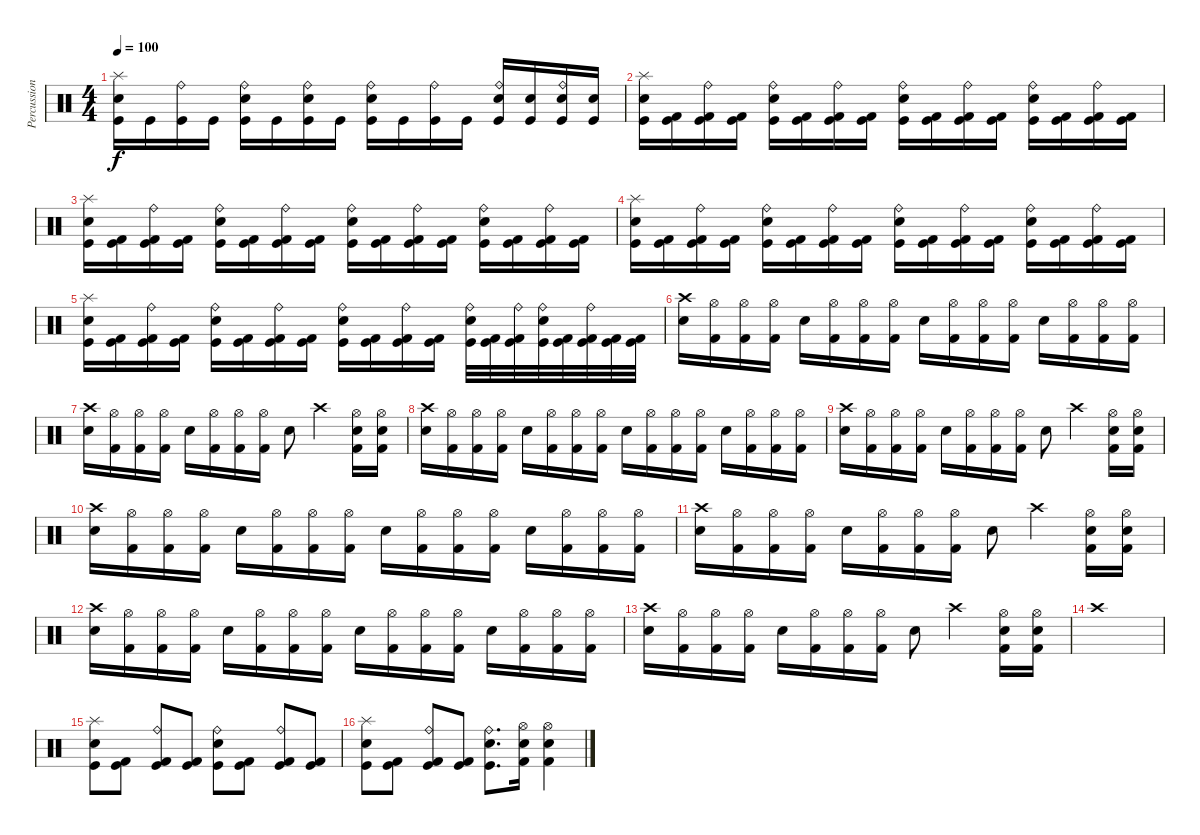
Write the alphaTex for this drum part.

\track ("Percussion" "Percussion") {instrument percussion}
\staff {score}
\articulation defaults
\ts (4 4)
\tempo 100
\clef neutral
\ks c
("Kick (hit)" "Electric Snare (hit)" "Splash (hit)").16{dy f} "Kick (hit)".16 ("Kick (hit)" "Ride (bell)").16 "Kick (hit)".16 ("Kick (hit)" "Electric Snare (hit)" "Ride (bell)").16 "Kick (hit)".16 ("Kick (hit)" "Electric Snare (hit)" "Ride (bell)").16 "Kick (hit)".16 ("Kick (hit)" "Electric Snare (hit)" "Ride (bell)").16 "Kick (hit)".16 ("Kick (hit)" "Ride (bell)").16 "Kick (hit)".16 ("Kick (hit)" "Snare (hit) 2" "Ride (bell)").16 ("Kick (hit)" "Snare (hit) 2").16 ("Kick (hit)" "Snare (hit) 2" "Ride (bell)").16 ("Kick (hit)" "Snare (hit) 2").16 |
("Kick (hit)" "Electric Snare (hit)" "Splash (hit)").16 ("Kick (hit)" "Kick (hit) 2").16 ("Kick (hit)" "Kick (hit) 2" "Ride (bell)").16 ("Kick (hit)" "Kick (hit) 2").16 ("Kick (hit)" "Electric Snare (hit)" "Ride (bell)").16 ("Kick (hit)" "Kick (hit) 2").16 ("Kick (hit)" "Kick (hit) 2" "Ride (bell)").16 ("Kick (hit)" "Kick (hit) 2").16 ("Kick (hit)" "Electric Snare (hit)" "Ride (bell)").16 ("Kick (hit)" "Kick (hit) 2").16 ("Kick (hit)" "Kick (hit) 2" "Ride (bell)").16 ("Kick (hit)" "Kick (hit) 2").16 ("Kick (hit)" "Electric Snare (hit)" "Ride (bell)").16 ("Kick (hit)" "Kick (hit) 2").16 ("Kick (hit)" "Kick (hit) 2" "Ride (bell)").16 ("Kick (hit)" "Kick (hit) 2").16 |
("Kick (hit)" "Electric Snare (hit)" "Splash (hit)").16 ("Kick (hit)" "Kick (hit) 2").16 ("Kick (hit)" "Kick (hit) 2" "Ride (bell)").16 ("Kick (hit)" "Kick (hit) 2").16 ("Kick (hit)" "Electric Snare (hit)" "Ride (bell)").16 ("Kick (hit)" "Kick (hit) 2").16 ("Kick (hit)" "Kick (hit) 2" "Ride (bell)").16 ("Kick (hit)" "Kick (hit) 2").16 ("Kick (hit)" "Electric Snare (hit)" "Ride (bell)").16 ("Kick (hit)" "Kick (hit) 2").16 ("Kick (hit)" "Kick (hit) 2" "Ride (bell)").16 ("Kick (hit)" "Kick (hit) 2").16 ("Kick (hit)" "Electric Snare (hit)" "Ride (bell)").16 ("Kick (hit)" "Kick (hit) 2").16 ("Kick (hit)" "Kick (hit) 2" "Ride (bell)").16 ("Kick (hit)" "Kick (hit) 2").16 |
("Kick (hit)" "Electric Snare (hit)" "Splash (hit)").16 ("Kick (hit)" "Kick (hit) 2").16 ("Kick (hit)" "Kick (hit) 2" "Ride (bell)").16 ("Kick (hit)" "Kick (hit) 2").16 ("Kick (hit)" "Electric Snare (hit)" "Ride (bell)").16 ("Kick (hit)" "Kick (hit) 2").16 ("Kick (hit)" "Kick (hit) 2" "Ride (bell)").16 ("Kick (hit)" "Kick (hit) 2").16 ("Kick (hit)" "Electric Snare (hit)" "Ride (bell)").16 ("Kick (hit)" "Kick (hit) 2").16 ("Kick (hit)" "Kick (hit) 2" "Ride (bell)").16 ("Kick (hit)" "Kick (hit) 2").16 ("Kick (hit)" "Electric Snare (hit)" "Ride (bell)").16 ("Kick (hit)" "Kick (hit) 2").16 ("Kick (hit)" "Kick (hit) 2" "Ride (bell)").16 ("Kick (hit)" "Kick (hit) 2").16 |
("Kick (hit)" "Electric Snare (hit)" "Splash (hit)").16 ("Kick (hit)" "Kick (hit) 2").16 ("Kick (hit)" "Kick (hit) 2" "Ride (bell)").16 ("Kick (hit)" "Kick (hit) 2").16 ("Kick (hit)" "Electric Snare (hit)" "Ride (bell)").16 ("Kick (hit)" "Kick (hit) 2").16 ("Kick (hit)" "Kick (hit) 2" "Ride (bell)").16 ("Kick (hit)" "Kick (hit) 2").16 ("Kick (hit)" "Electric Snare (hit)" "Ride (bell)").16 ("Kick (hit)" "Kick (hit) 2").16 ("Kick (hit)" "Kick (hit) 2" "Ride (bell)").16 ("Kick (hit)" "Kick (hit) 2").16 ("Kick (hit)" "Electric Snare (hit)" "Ride (bell)").32 ("Kick (hit)" "Kick (hit) 2").32 ("Kick (hit)" "Kick (hit) 2" "Ride (bell)").32 ("Kick (hit)" "Electric Snare (hit)" "Ride (bell)").32 ("Kick (hit)" "Kick (hit) 2").32 ("Kick (hit)" "Kick (hit) 2" "Ride (bell)").32 ("Kick (hit)" "Kick (hit) 2").32 ("Kick (hit)" "Kick (hit) 2").32 |
("Crash high (hit)" "Electric Snare (hit)").16 ("Hi-Hat (open)" "Kick (hit) 2").16 ("Hi-Hat (open)" "Kick (hit) 2").16 ("Hi-Hat (open)" "Kick (hit) 2").16 "Electric Snare (hit)".16 ("Hi-Hat (open)" "Kick (hit) 2").16 ("Hi-Hat (open)" "Kick (hit) 2").16 ("Hi-Hat (open)" "Kick (hit) 2").16 "Electric Snare (hit)".16 ("Hi-Hat (open)" "Kick (hit) 2").16 ("Hi-Hat (open)" "Kick (hit) 2").16 ("Hi-Hat (open)" "Kick (hit) 2").16 "Electric Snare (hit)".16 ("Hi-Hat (open)" "Kick (hit) 2").16 ("Hi-Hat (open)" "Kick (hit) 2").16 ("Hi-Hat (open)" "Kick (hit) 2").16 |
("Crash high (hit)" "Electric Snare (hit)").16 ("Hi-Hat (open)" "Kick (hit) 2").16 ("Hi-Hat (open)" "Kick (hit) 2").16 ("Hi-Hat (open)" "Kick (hit) 2").16 "Electric Snare (hit)".16 ("Hi-Hat (open)" "Kick (hit) 2").16 ("Hi-Hat (open)" "Kick (hit) 2").16 ("Hi-Hat (open)" "Kick (hit) 2").16 "Electric Snare (hit)".8 "Crash high (hit)".4 ("Hi-Hat (open)" "Snare (hit) 2" "Kick (hit) 2").16 ("Hi-Hat (open)" "Electric Snare (hit)" "Kick (hit) 2").16 |
("Crash high (hit)" "Electric Snare (hit)").16 ("Hi-Hat (open)" "Kick (hit) 2").16 ("Hi-Hat (open)" "Kick (hit) 2").16 ("Hi-Hat (open)" "Kick (hit) 2").16 "Electric Snare (hit)".16 ("Hi-Hat (open)" "Kick (hit) 2").16 ("Hi-Hat (open)" "Kick (hit) 2").16 ("Hi-Hat (open)" "Kick (hit) 2").16 "Electric Snare (hit)".16 ("Hi-Hat (open)" "Kick (hit) 2").16 ("Hi-Hat (open)" "Kick (hit) 2").16 ("Hi-Hat (open)" "Kick (hit) 2").16 "Electric Snare (hit)".16 ("Hi-Hat (open)" "Kick (hit) 2").16 ("Hi-Hat (open)" "Kick (hit) 2").16 ("Hi-Hat (open)" "Kick (hit) 2").16 |
("Crash high (hit)" "Electric Snare (hit)").16 ("Hi-Hat (open)" "Kick (hit) 2").16 ("Hi-Hat (open)" "Kick (hit) 2").16 ("Hi-Hat (open)" "Kick (hit) 2").16 "Electric Snare (hit)".16 ("Hi-Hat (open)" "Kick (hit) 2").16 ("Hi-Hat (open)" "Kick (hit) 2").16 ("Hi-Hat (open)" "Kick (hit) 2").16 "Electric Snare (hit)".8 "Crash high (hit)".4 ("Hi-Hat (open)" "Snare (hit) 2" "Kick (hit) 2").16 ("Hi-Hat (open)" "Electric Snare (hit)" "Kick (hit) 2").16 |
("Crash high (hit)" "Electric Snare (hit)").16 ("Hi-Hat (open)" "Kick (hit) 2").16 ("Hi-Hat (open)" "Kick (hit) 2").16 ("Hi-Hat (open)" "Kick (hit) 2").16 "Electric Snare (hit)".16 ("Hi-Hat (open)" "Kick (hit) 2").16 ("Hi-Hat (open)" "Kick (hit) 2").16 ("Hi-Hat (open)" "Kick (hit) 2").16 "Electric Snare (hit)".16 ("Hi-Hat (open)" "Kick (hit) 2").16 ("Hi-Hat (open)" "Kick (hit) 2").16 ("Hi-Hat (open)" "Kick (hit) 2").16 "Electric Snare (hit)".16 ("Hi-Hat (open)" "Kick (hit) 2").16 ("Hi-Hat (open)" "Kick (hit) 2").16 ("Hi-Hat (open)" "Kick (hit) 2").16 |
("Crash high (hit)" "Electric Snare (hit)").16 ("Hi-Hat (open)" "Kick (hit) 2").16 ("Hi-Hat (open)" "Kick (hit) 2").16 ("Hi-Hat (open)" "Kick (hit) 2").16 "Electric Snare (hit)".16 ("Hi-Hat (open)" "Kick (hit) 2").16 ("Hi-Hat (open)" "Kick (hit) 2").16 ("Hi-Hat (open)" "Kick (hit) 2").16 "Electric Snare (hit)".8 "Crash high (hit)".4 ("Hi-Hat (open)" "Snare (hit) 2" "Kick (hit) 2").16 ("Hi-Hat (open)" "Electric Snare (hit)" "Kick (hit) 2").16 |
("Crash high (hit)" "Electric Snare (hit)").16 ("Hi-Hat (open)" "Kick (hit) 2").16 ("Hi-Hat (open)" "Kick (hit) 2").16 ("Hi-Hat (open)" "Kick (hit) 2").16 "Electric Snare (hit)".16 ("Hi-Hat (open)" "Kick (hit) 2").16 ("Hi-Hat (open)" "Kick (hit) 2").16 ("Hi-Hat (open)" "Kick (hit) 2").16 "Electric Snare (hit)".16 ("Hi-Hat (open)" "Kick (hit) 2").16 ("Hi-Hat (open)" "Kick (hit) 2").16 ("Hi-Hat (open)" "Kick (hit) 2").16 "Electric Snare (hit)".16 ("Hi-Hat (open)" "Kick (hit) 2").16 ("Hi-Hat (open)" "Kick (hit) 2").16 ("Hi-Hat (open)" "Kick (hit) 2").16 |
("Crash high (hit)" "Electric Snare (hit)").16 ("Hi-Hat (open)" "Kick (hit) 2").16 ("Hi-Hat (open)" "Kick (hit) 2").16 ("Hi-Hat (open)" "Kick (hit) 2").16 "Electric Snare (hit)".16 ("Hi-Hat (open)" "Kick (hit) 2").16 ("Hi-Hat (open)" "Kick (hit) 2").16 ("Hi-Hat (open)" "Kick (hit) 2").16 "Electric Snare (hit)".8 "Crash high (hit)".4 ("Hi-Hat (open)" "Snare (hit) 2" "Kick (hit) 2").16 ("Hi-Hat (open)" "Electric Snare (hit)" "Kick (hit) 2").16 |
"Crash high (hit)".1 |
("Kick (hit)" "Electric Snare (hit)" "Splash (hit)").8 ("Kick (hit)" "Kick (hit) 2").8 ("Kick (hit)" "Kick (hit) 2" "Ride (bell)").8 ("Kick (hit)" "Kick (hit) 2").8 ("Kick (hit)" "Electric Snare (hit)" "Ride (bell)").8 ("Kick (hit)" "Kick (hit) 2").8 ("Kick (hit)" "Kick (hit) 2" "Ride (bell)").8 ("Kick (hit)" "Kick (hit) 2").8 |
("Kick (hit)" "Electric Snare (hit)" "Splash (hit)").8 ("Kick (hit)" "Kick (hit) 2").8 ("Kick (hit)" "Kick (hit) 2" "Ride (bell)").8 ("Kick (hit)" "Kick (hit) 2").8 ("Kick (hit)" "Electric Snare (hit)" "Ride (bell)").8{d} ("Hi-Hat (open)" "Snare (hit) 2" "Kick (hit) 2").16 ("Hi-Hat (open)" "Electric Snare (hit)" "Kick (hit) 2").4
